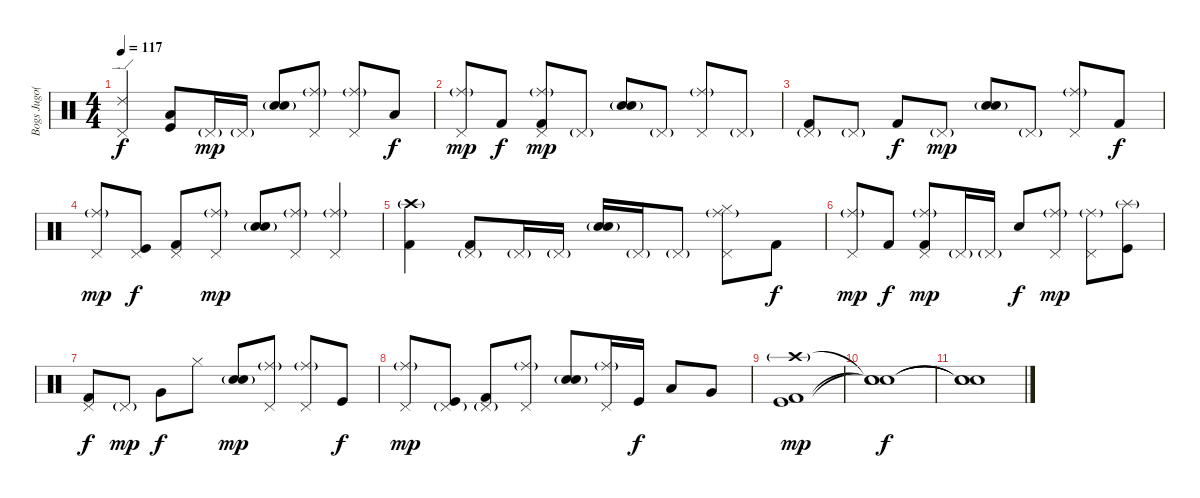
\track ("Bogs Jugo(Drums)" "Bogs Jugo(") {instrument percussion}
\staff {score}
\articulation defaults
\ts (4 4)
\tempo 117
\clef neutral
\ks c
("Pedal Hi-Hat (hit)" "Ride (edge) 2").4{dy f} ("Low Tom (hit)" "Kick (hit)").8 "Pedal Hi-Hat (hit)"{g}.16{dy mp} "Pedal Hi-Hat (hit)"{g}.16 ("Electric Snare (hit)" "Snare (hit) 2"{g}).8 ("Pedal Hi-Hat (hit)" "Ride (middle)"{g}).8 ("Pedal Hi-Hat (hit)" "Ride (middle)"{g}).8 "Low Tom (hit)".8{dy f} |
("Pedal Hi-Hat (hit)" "Ride (middle)"{g}).8{dy mp} "Kick (hit) 2".8{dy f} ("Pedal Hi-Hat (hit)" "Ride (middle)"{g} "Kick (hit) 2").8{dy mp} "Pedal Hi-Hat (hit)"{g}.8 ("Electric Snare (hit)" "Snare (hit) 2"{g}).8 "Pedal Hi-Hat (hit)"{g}.8 ("Pedal Hi-Hat (hit)" "Ride (middle)"{g}).8 "Pedal Hi-Hat (hit)"{g}.8 |
("Pedal Hi-Hat (hit)"{g} "Kick (hit) 2").8 "Pedal Hi-Hat (hit)"{g}.8 "Kick (hit) 2".8{dy f} "Pedal Hi-Hat (hit)"{g}.8{dy mp} ("Electric Snare (hit)" "Snare (hit) 2"{g}).8 "Pedal Hi-Hat (hit)"{g}.8 ("Pedal Hi-Hat (hit)" "Ride (middle)"{g}).8 "Kick (hit) 2".8{dy f} |
("Pedal Hi-Hat (hit)" "Ride (middle)"{g}).8{dy mp} ("Pedal Hi-Hat (hit)" "Kick (hit)").8{dy f} ("Pedal Hi-Hat (hit)" "Kick (hit) 2").8 ("Pedal Hi-Hat (hit)" "Ride (middle)"{g}).8{dy mp} ("Electric Snare (hit)" "Snare (hit) 2"{g}).8 ("Pedal Hi-Hat (hit)" "Ride (middle)"{g}).8 ("Pedal Hi-Hat (hit)" "Ride (middle)"{g}).4 |
("Crash high (hit)"{g} "Kick (hit) 2").4 ("Pedal Hi-Hat (hit)"{g} "Kick (hit) 2").8 "Pedal Hi-Hat (hit)"{g}.16 "Pedal Hi-Hat (hit)"{g}.16 ("Electric Snare (hit)" "Snare (hit) 2"{g}).16 "Pedal Hi-Hat (hit)"{g}.16 "Pedal Hi-Hat (hit)"{g}.8 ("Pedal Hi-Hat (hit)" "Hi-Hat (closed)" "Ride (middle)"{g}).8 "Kick (hit) 2".8{dy f} |
("Pedal Hi-Hat (hit)" "Ride (middle)"{g}).8{dy mp} "Kick (hit) 2".8{dy f} ("Pedal Hi-Hat (hit)" "Ride (middle)"{g} "Kick (hit) 2").8{dy mp} "Pedal Hi-Hat (hit)"{g}.16 "Pedal Hi-Hat (hit)"{g}.16 "Electric Snare (hit)".8{dy f} ("Pedal Hi-Hat (hit)" "Ride (middle)"{g}).8{dy mp} ("Pedal Hi-Hat (hit)" "Ride (middle)"{g}).8 ("Kick (hit)" "Splash (hit)"{g}).8 |
("Pedal Hi-Hat (hit)" "Kick (hit) 2").8{dy f} "Pedal Hi-Hat (hit)"{g}.8{dy mp} "Very Low Tom (hit)".8{dy f} "Hi-Hat (closed)".8 ("Electric Snare (hit)" "Snare (hit) 2"{g}).8{dy mp} ("Pedal Hi-Hat (hit)" "Ride (middle)"{g}).8 ("Pedal Hi-Hat (hit)" "Ride (middle)"{g}).8 "Kick (hit)".8{dy f} |
("Pedal Hi-Hat (hit)" "Ride (middle)"{g}).8{dy mp} ("Pedal Hi-Hat (hit)"{g} "Kick (hit)").8 ("Pedal Hi-Hat (hit)"{g} "Kick (hit) 2").8 ("Pedal Hi-Hat (hit)" "Ride (middle)"{g}).8 ("Electric Snare (hit)" "Snare (hit) 2"{g}).8 ("Pedal Hi-Hat (hit)" "Ride (middle)"{g}).16 "Kick (hit)".16{dy f} "Low Tom (hit)".8 "Very Low Tom (hit)".8 |
("Crash high (hit)"{g} "Kick (hit) 2" "Kick (hit)").1{dy mp} |
("Snare (hit)"{t} "Snare (hit)"{t} "Snare (hit)"{t}).1{dy f} |
("Snare (hit)"{t} "Snare (hit)"{t} "Snare (hit)"{t}).1
